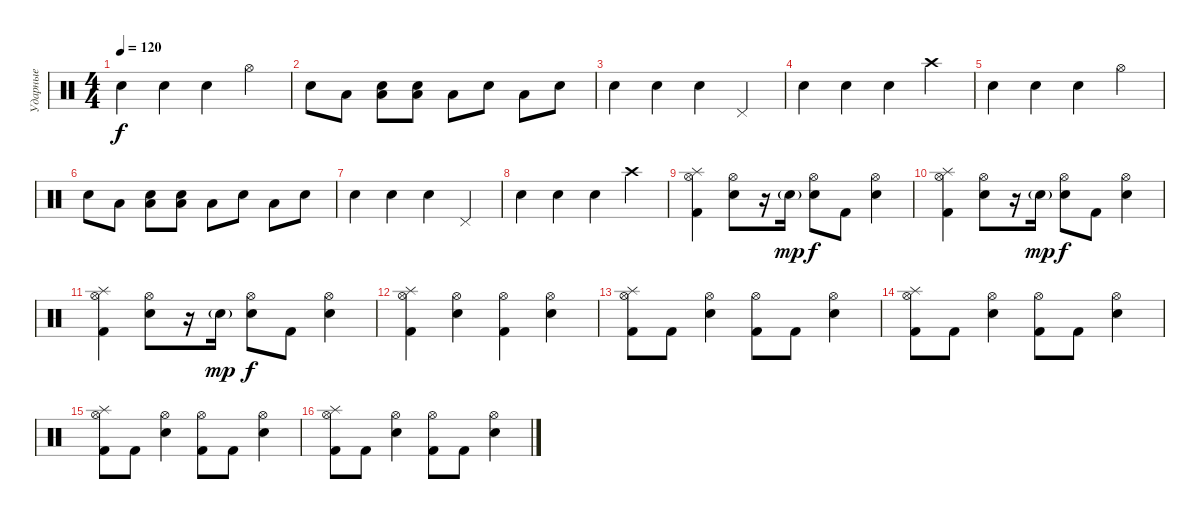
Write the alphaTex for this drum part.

\track ("Ударные" "Ударные") {instrument percussion}
\staff {score}
\articulation defaults
\ts (4 4)
\tempo 120
\clef neutral
\ks c "Electric Snare (hit)".4{dy f} "Electric Snare (hit)".4 "Electric Snare (hit)".4 "Hi-Hat (open)".4
|
"Electric Snare (hit)".8 "Low Floor Tom (hit)".8 ("Electric Snare (hit)" "Low Floor Tom (hit)").8 ("Electric Snare (hit)" "Low Floor Tom (hit)").8 "Low Floor Tom (hit)".8 "Electric Snare (hit)".8 "Low Floor Tom (hit)".8 "Electric Snare (hit)".8 |
"Electric Snare (hit)".4 "Electric Snare (hit)".4 "Electric Snare (hit)".4 "Pedal Hi-Hat (hit)".4 |
"Electric Snare (hit)".4 "Electric Snare (hit)".4 "Electric Snare (hit)".4 "Crash high (hit)".4 |
"Electric Snare (hit)".4 "Electric Snare (hit)".4 "Electric Snare (hit)".4 "Hi-Hat (open)".4 |
"Electric Snare (hit)".8 "Low Floor Tom (hit)".8 ("Electric Snare (hit)" "Low Floor Tom (hit)").8 ("Electric Snare (hit)" "Low Floor Tom (hit)").8 "Low Floor Tom (hit)".8 "Electric Snare (hit)".8 "Low Floor Tom (hit)".8 "Electric Snare (hit)".8 |
"Electric Snare (hit)".4 "Electric Snare (hit)".4 "Electric Snare (hit)".4 "Pedal Hi-Hat (hit)".4 |
"Electric Snare (hit)".4 "Electric Snare (hit)".4 "Electric Snare (hit)".4 "Crash high (hit)".4 |
("Kick (hit) 2" "Hi-Hat (open)" "Splash (hit)").4 ("Electric Snare (hit)" "Hi-Hat (open)").8 r.16 "Electric Snare (hit)"{g}.16{dy mp} ("Electric Snare (hit)" "Hi-Hat (open)").8{dy f} "Kick (hit) 2".8 ("Electric Snare (hit)" "Hi-Hat (open)").4 |
("Kick (hit) 2" "Hi-Hat (open)" "Splash (hit)").4 ("Electric Snare (hit)" "Hi-Hat (open)").8 r.16 "Electric Snare (hit)"{g}.16{dy mp} ("Electric Snare (hit)" "Hi-Hat (open)").8{dy f} "Kick (hit) 2".8 ("Electric Snare (hit)" "Hi-Hat (open)").4 |
("Kick (hit) 2" "Hi-Hat (open)" "Splash (hit)").4 ("Electric Snare (hit)" "Hi-Hat (open)").8 r.16 "Electric Snare (hit)"{g}.16{dy mp} ("Electric Snare (hit)" "Hi-Hat (open)").8{dy f} "Kick (hit) 2".8 ("Electric Snare (hit)" "Hi-Hat (open)").4 |
("Kick (hit) 2" "Hi-Hat (open)" "Splash (hit)").4 ("Electric Snare (hit)" "Hi-Hat (open)").4 ("Kick (hit) 2" "Hi-Hat (open)").4 ("Electric Snare (hit)" "Hi-Hat (open)").4 |
("Kick (hit) 2" "Hi-Hat (open)" "Splash (hit)").8 "Kick (hit) 2".8 ("Electric Snare (hit)" "Hi-Hat (open)").4 ("Kick (hit) 2" "Hi-Hat (open)").8 "Kick (hit) 2".8 ("Electric Snare (hit)" "Hi-Hat (open)").4 |
("Kick (hit) 2" "Hi-Hat (open)" "Splash (hit)").8 "Kick (hit) 2".8 ("Electric Snare (hit)" "Hi-Hat (open)").4 ("Kick (hit) 2" "Hi-Hat (open)").8 "Kick (hit) 2".8 ("Electric Snare (hit)" "Hi-Hat (open)").4 |
("Kick (hit) 2" "Hi-Hat (open)" "Splash (hit)").8 "Kick (hit) 2".8 ("Electric Snare (hit)" "Hi-Hat (open)").4 ("Kick (hit) 2" "Hi-Hat (open)").8 "Kick (hit) 2".8 ("Electric Snare (hit)" "Hi-Hat (open)").4 |
("Kick (hit) 2" "Hi-Hat (open)" "Splash (hit)").8 "Kick (hit) 2".8 ("Electric Snare (hit)" "Hi-Hat (open)").4 ("Kick (hit) 2" "Hi-Hat (open)").8 "Kick (hit) 2".8 ("Electric Snare (hit)" "Hi-Hat (open)").4
